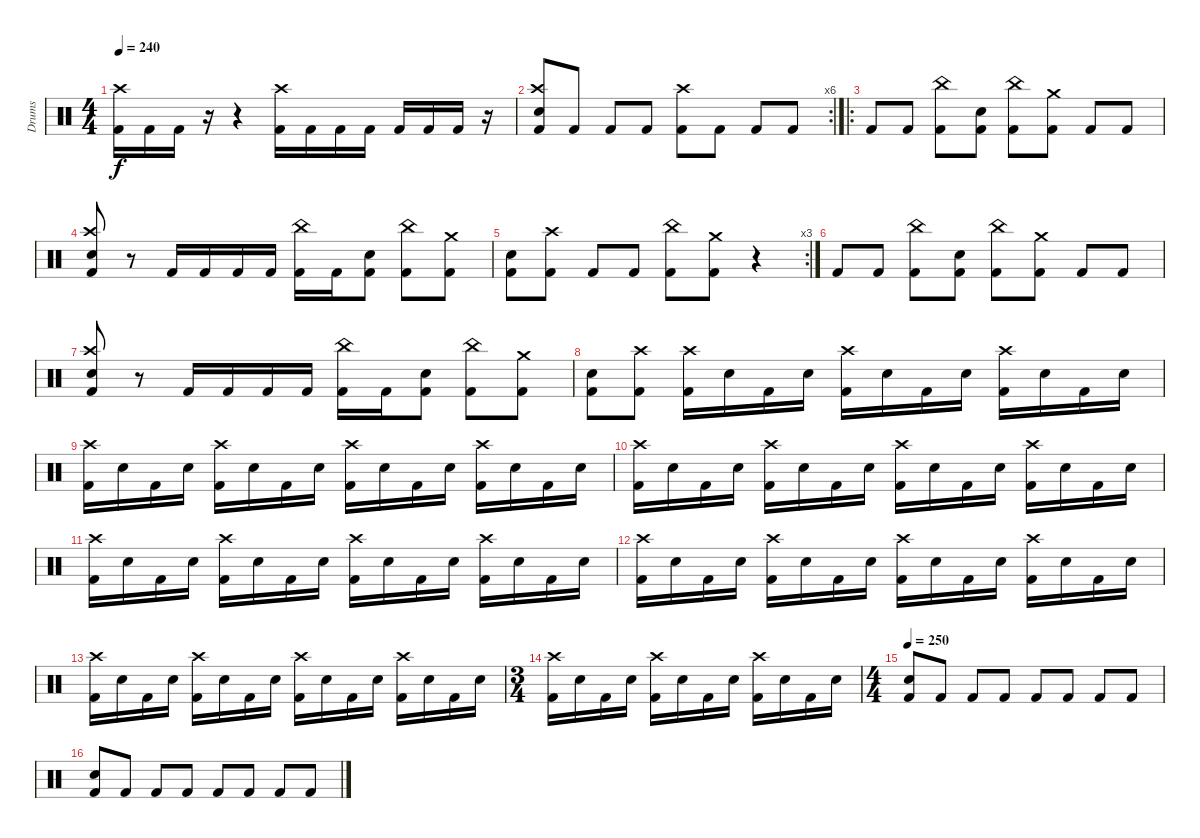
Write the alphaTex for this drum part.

\track ("Drums" "Drums") {instrument percussion}
\staff {score}
\articulation defaults
\ts (4 4)
\tempo 240
\clef neutral
\ks c
("Kick (hit) 2" "Crash high (hit)").16{dy f} "Kick (hit) 2".16 "Kick (hit) 2".16 r.16 r.4 ("Kick (hit) 2" "Crash high (hit)").16 "Kick (hit) 2".16 "Kick (hit) 2".16 "Kick (hit) 2".16 "Kick (hit) 2".16 "Kick (hit) 2".16 "Kick (hit) 2".16 r.16 |
\rc 6
("Kick (hit) 2" "Electric Snare (hit)" "Crash high (hit)").8 "Kick (hit) 2".8 "Kick (hit) 2".8 "Kick (hit) 2".8 ("Kick (hit) 2" "Crash high (hit)").8 "Kick (hit) 2".8 "Kick (hit) 2".8 "Kick (hit) 2".8 |
\ro "Kick (hit) 2".8 "Kick (hit) 2".8
("Kick (hit) 2" "China (hit)").8 ("Kick (hit) 2" "Electric Snare (hit)").8 ("Kick (hit) 2" "China (hit)").8 ("Kick (hit) 2" "Crash medium (hit)").8 "Kick (hit) 2".8 "Kick (hit) 2".8 |
("Kick (hit) 2" "Crash high (hit)" "Electric Snare (hit)").8 r.8 "Kick (hit) 2".16 "Kick (hit) 2".16 "Kick (hit) 2".16 "Kick (hit) 2".16 ("Kick (hit) 2" "China (hit)").16 "Kick (hit) 2".16 ("Kick (hit) 2" "Electric Snare (hit)").8 ("Kick (hit) 2" "China (hit)").8 ("Kick (hit) 2" "Crash medium (hit)").8 |
\rc 3
("Kick (hit) 2" "Electric Snare (hit)").8 ("Kick (hit) 2" "Crash high (hit)").8 "Kick (hit) 2".8 "Kick (hit) 2".8 ("Kick (hit) 2" "China (hit)").8 ("Kick (hit) 2" "Crash medium (hit)").8 r.4 |
"Kick (hit) 2".8 "Kick (hit) 2".8 ("Kick (hit) 2" "China (hit)").8 ("Kick (hit) 2" "Electric Snare (hit)").8 ("Kick (hit) 2" "China (hit)").8 ("Kick (hit) 2" "Crash medium (hit)").8 "Kick (hit) 2".8 "Kick (hit) 2".8 |
("Kick (hit) 2" "Crash high (hit)" "Electric Snare (hit)").8 r.8 "Kick (hit) 2".16 "Kick (hit) 2".16 "Kick (hit) 2".16 "Kick (hit) 2".16 ("Kick (hit) 2" "China (hit)").16 "Kick (hit) 2".16 ("Kick (hit) 2" "Electric Snare (hit)").8 ("Kick (hit) 2" "China (hit)").8 ("Kick (hit) 2" "Crash medium (hit)").8 |
("Kick (hit) 2" "Electric Snare (hit)").8 ("Kick (hit) 2" "Crash high (hit)").8 ("Kick (hit) 2" "Crash high (hit)").16 "Electric Snare (hit)".16 "Kick (hit) 2".16 "Electric Snare (hit)".16 ("Kick (hit) 2" "Crash high (hit)").16 "Electric Snare (hit)".16 "Kick (hit) 2".16 "Electric Snare (hit)".16 ("Kick (hit) 2" "Crash high (hit)").16 "Electric Snare (hit)".16 "Kick (hit) 2".16 "Electric Snare (hit)".16 |
("Kick (hit) 2" "Crash high (hit)").16 "Electric Snare (hit)".16 "Kick (hit) 2".16 "Electric Snare (hit)".16 ("Kick (hit) 2" "Crash high (hit)").16 "Electric Snare (hit)".16 "Kick (hit) 2".16 "Electric Snare (hit)".16 ("Kick (hit) 2" "Crash high (hit)").16 "Electric Snare (hit)".16 "Kick (hit) 2".16 "Electric Snare (hit)".16 ("Kick (hit) 2" "Crash high (hit)").16 "Electric Snare (hit)".16 "Kick (hit) 2".16 "Electric Snare (hit)".16 |
("Kick (hit) 2" "Crash high (hit)").16 "Electric Snare (hit)".16 "Kick (hit) 2".16 "Electric Snare (hit)".16 ("Kick (hit) 2" "Crash high (hit)").16 "Electric Snare (hit)".16 "Kick (hit) 2".16 "Electric Snare (hit)".16 ("Kick (hit) 2" "Crash high (hit)").16 "Electric Snare (hit)".16 "Kick (hit) 2".16 "Electric Snare (hit)".16 ("Kick (hit) 2" "Crash high (hit)").16 "Electric Snare (hit)".16 "Kick (hit) 2".16 "Electric Snare (hit)".16 |
("Kick (hit) 2" "Crash high (hit)").16 "Electric Snare (hit)".16 "Kick (hit) 2".16 "Electric Snare (hit)".16 ("Kick (hit) 2" "Crash high (hit)").16 "Electric Snare (hit)".16 "Kick (hit) 2".16 "Electric Snare (hit)".16 ("Kick (hit) 2" "Crash high (hit)").16 "Electric Snare (hit)".16 "Kick (hit) 2".16 "Electric Snare (hit)".16 ("Kick (hit) 2" "Crash high (hit)").16 "Electric Snare (hit)".16 "Kick (hit) 2".16 "Electric Snare (hit)".16 |
("Kick (hit) 2" "Crash high (hit)").16 "Electric Snare (hit)".16 "Kick (hit) 2".16 "Electric Snare (hit)".16 ("Kick (hit) 2" "Crash high (hit)").16 "Electric Snare (hit)".16 "Kick (hit) 2".16 "Electric Snare (hit)".16 ("Kick (hit) 2" "Crash high (hit)").16 "Electric Snare (hit)".16 "Kick (hit) 2".16 "Electric Snare (hit)".16 ("Kick (hit) 2" "Crash high (hit)").16 "Electric Snare (hit)".16 "Kick (hit) 2".16 "Electric Snare (hit)".16 |
("Kick (hit) 2" "Crash high (hit)").16 "Electric Snare (hit)".16 "Kick (hit) 2".16 "Electric Snare (hit)".16 ("Kick (hit) 2" "Crash high (hit)").16 "Electric Snare (hit)".16 "Kick (hit) 2".16 "Electric Snare (hit)".16 ("Kick (hit) 2" "Crash high (hit)").16 "Electric Snare (hit)".16 "Kick (hit) 2".16 "Electric Snare (hit)".16 ("Kick (hit) 2" "Crash high (hit)").16 "Electric Snare (hit)".16 "Kick (hit) 2".16 "Electric Snare (hit)".16 |
\ts (3 4)
("Kick (hit) 2" "Crash high (hit)").16 "Electric Snare (hit)".16 "Kick (hit) 2".16 "Electric Snare (hit)".16 ("Kick (hit) 2" "Crash high (hit)").16 "Electric Snare (hit)".16 "Kick (hit) 2".16 "Electric Snare (hit)".16 ("Kick (hit) 2" "Crash high (hit)").16 "Electric Snare (hit)".16 "Kick (hit) 2".16 "Electric Snare (hit)".16 |
\ts (4 4)
\tempo 250
("Kick (hit) 2" "Electric Snare (hit)").8{volume 6} "Kick (hit) 2".8 "Kick (hit) 2".8 "Kick (hit) 2".8 "Kick (hit) 2".8 "Kick (hit) 2".8 "Kick (hit) 2".8 "Kick (hit) 2".8 |
("Kick (hit) 2" "Electric Snare (hit)").8 "Kick (hit) 2".8 "Kick (hit) 2".8 "Kick (hit) 2".8 "Kick (hit) 2".8 "Kick (hit) 2".8 "Kick (hit) 2".8 "Kick (hit) 2".8
